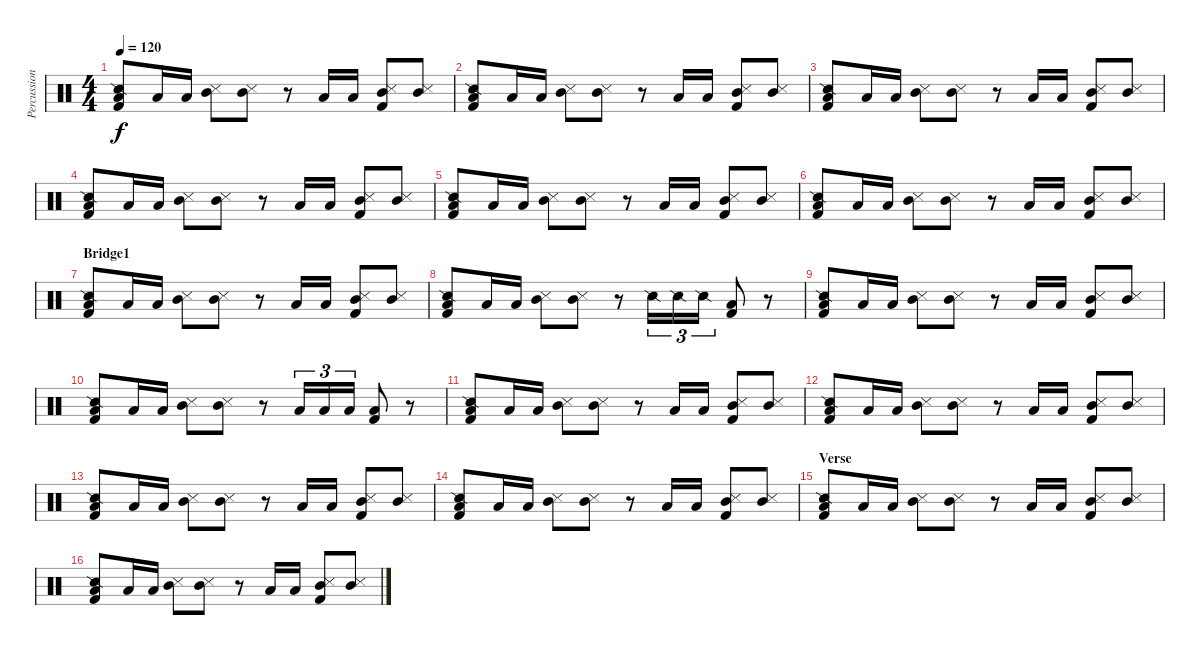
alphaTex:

\track ("Percussion" "Percussion") {instrument percussion}
\staff {score}
\articulation defaults
\ts (4 4)
\tempo 120
\clef neutral
\ks c
("Kick (hit) 2" "Snare (side stick) 2" "Low Floor Tom (hit)").8{dy f} "Low Tom (hit)".16 "Low Tom (hit)".16 ("Snare (side stick) 3" "Mid Tom (hit)").8 ("Snare (side stick) 3" "Mid Tom (hit)").8 r.8 "Low Tom (hit)".16 "Low Tom (hit)".16 ("Kick (hit) 2" "Snare (side stick) 3" "Mid Tom (hit)").8 ("Snare (side stick) 3" "Mid Tom (hit)").8 |
("Kick (hit) 2" "Snare (side stick) 2" "Low Floor Tom (hit)").8 "Low Tom (hit)".16 "Low Tom (hit)".16 ("Snare (side stick) 3" "Mid Tom (hit)").8 ("Snare (side stick) 3" "Mid Tom (hit)").8 r.8 "Low Tom (hit)".16 "Low Tom (hit)".16 ("Kick (hit) 2" "Snare (side stick) 3" "Mid Tom (hit)").8 ("Snare (side stick) 3" "Mid Tom (hit)").8 |
("Kick (hit) 2" "Snare (side stick) 2" "Low Floor Tom (hit)").8 "Low Tom (hit)".16 "Low Tom (hit)".16 ("Snare (side stick) 3" "Mid Tom (hit)").8 ("Snare (side stick) 3" "Mid Tom (hit)").8 r.8 "Low Tom (hit)".16 "Low Tom (hit)".16 ("Kick (hit) 2" "Snare (side stick) 3" "Mid Tom (hit)").8 ("Snare (side stick) 3" "Mid Tom (hit)").8 |
("Kick (hit) 2" "Snare (side stick) 2" "Low Floor Tom (hit)").8 "Low Tom (hit)".16 "Low Tom (hit)".16 ("Snare (side stick) 3" "Mid Tom (hit)").8 ("Snare (side stick) 3" "Mid Tom (hit)").8 r.8 "Low Tom (hit)".16 "Low Tom (hit)".16 ("Kick (hit) 2" "Snare (side stick) 3" "Mid Tom (hit)").8 ("Snare (side stick) 3" "Mid Tom (hit)").8 |
("Kick (hit) 2" "Snare (side stick) 2" "Low Floor Tom (hit)").8 "Low Tom (hit)".16 "Low Tom (hit)".16 ("Snare (side stick) 3" "Mid Tom (hit)").8 ("Snare (side stick) 3" "Mid Tom (hit)").8 r.8 "Low Tom (hit)".16 "Low Tom (hit)".16 ("Kick (hit) 2" "Snare (side stick) 3" "Mid Tom (hit)").8 ("Snare (side stick) 3" "Mid Tom (hit)").8 |
("Kick (hit) 2" "Snare (side stick) 2" "Low Floor Tom (hit)").8 "Low Tom (hit)".16 "Low Tom (hit)".16 ("Snare (side stick) 3" "Mid Tom (hit)").8 ("Snare (side stick) 3" "Mid Tom (hit)").8 r.8 "Low Tom (hit)".16 "Low Tom (hit)".16 ("Kick (hit) 2" "Snare (side stick) 3" "Mid Tom (hit)").8 ("Snare (side stick) 3" "Mid Tom (hit)").8 |
\section ("" "Bridge1")
("Kick (hit) 2" "Snare (side stick) 2" "Low Floor Tom (hit)").8 "Low Tom (hit)".16 "Low Tom (hit)".16 ("Snare (side stick) 3" "Mid Tom (hit)").8 ("Snare (side stick) 3" "Mid Tom (hit)").8 r.8 "Low Tom (hit)".16 "Low Tom (hit)".16 ("Kick (hit) 2" "Snare (side stick) 3" "Mid Tom (hit)").8 ("Snare (side stick) 3" "Mid Tom (hit)").8 |
("Kick (hit) 2" "Snare (side stick) 2" "Low Floor Tom (hit)").8 "Low Tom (hit)".16 "Low Tom (hit)".16 ("Snare (side stick) 3" "Mid Tom (hit)").8 ("Snare (side stick) 3" "Mid Tom (hit)").8 r.8 "Snare (side stick) 2".16{tu (3 2)} "Snare (side stick) 2".16{tu (3 2)} "Snare (side stick) 2".16{tu (3 2)} ("Kick (hit) 2" "Low Floor Tom (hit)").8 r.8 |
("Kick (hit) 2" "Snare (side stick) 2" "Low Floor Tom (hit)").8 "Low Tom (hit)".16 "Low Tom (hit)".16 ("Snare (side stick) 3" "Mid Tom (hit)").8 ("Snare (side stick) 3" "Mid Tom (hit)").8 r.8 "Low Tom (hit)".16 "Low Tom (hit)".16 ("Kick (hit) 2" "Snare (side stick) 3" "Mid Tom (hit)").8 ("Snare (side stick) 3" "Mid Tom (hit)").8 |
("Kick (hit) 2" "Snare (side stick) 2" "Low Floor Tom (hit)").8 "Low Tom (hit)".16 "Low Tom (hit)".16 ("Snare (side stick) 3" "Mid Tom (hit)").8 ("Snare (side stick) 3" "Mid Tom (hit)").8 r.8 "Low Floor Tom (hit)".16{tu (3 2)} "Low Floor Tom (hit)".16{tu (3 2)} "Low Floor Tom (hit)".16{tu (3 2)} ("Kick (hit) 2" "Low Floor Tom (hit)").8 r.8 |
("Kick (hit) 2" "Snare (side stick) 2" "Low Floor Tom (hit)").8 "Low Tom (hit)".16 "Low Tom (hit)".16 ("Snare (side stick) 3" "Mid Tom (hit)").8 ("Snare (side stick) 3" "Mid Tom (hit)").8 r.8 "Low Tom (hit)".16 "Low Tom (hit)".16 ("Kick (hit) 2" "Snare (side stick) 3" "Mid Tom (hit)").8 ("Snare (side stick) 3" "Mid Tom (hit)").8 |
("Kick (hit) 2" "Snare (side stick) 2" "Low Floor Tom (hit)").8 "Low Tom (hit)".16 "Low Tom (hit)".16 ("Snare (side stick) 3" "Mid Tom (hit)").8 ("Snare (side stick) 3" "Mid Tom (hit)").8 r.8 "Low Tom (hit)".16 "Low Tom (hit)".16 ("Kick (hit) 2" "Snare (side stick) 3" "Mid Tom (hit)").8 ("Snare (side stick) 3" "Mid Tom (hit)").8 |
("Kick (hit) 2" "Snare (side stick) 2" "Low Floor Tom (hit)").8 "Low Tom (hit)".16 "Low Tom (hit)".16 ("Snare (side stick) 3" "Mid Tom (hit)").8 ("Snare (side stick) 3" "Mid Tom (hit)").8 r.8 "Low Tom (hit)".16 "Low Tom (hit)".16 ("Kick (hit) 2" "Snare (side stick) 3" "Mid Tom (hit)").8 ("Snare (side stick) 3" "Mid Tom (hit)").8 |
("Kick (hit) 2" "Snare (side stick) 2" "Low Floor Tom (hit)").8 "Low Tom (hit)".16 "Low Tom (hit)".16 ("Snare (side stick) 3" "Mid Tom (hit)").8 ("Snare (side stick) 3" "Mid Tom (hit)").8 r.8 "Low Tom (hit)".16 "Low Tom (hit)".16 ("Kick (hit) 2" "Snare (side stick) 3" "Mid Tom (hit)").8 ("Snare (side stick) 3" "Mid Tom (hit)").8 |
\section ("" "Verse")
("Kick (hit) 2" "Snare (side stick) 2" "Low Floor Tom (hit)").8 "Low Tom (hit)".16 "Low Tom (hit)".16 ("Snare (side stick) 3" "Mid Tom (hit)").8 ("Snare (side stick) 3" "Mid Tom (hit)").8 r.8 "Low Tom (hit)".16 "Low Tom (hit)".16 ("Kick (hit) 2" "Snare (side stick) 3" "Mid Tom (hit)").8 ("Snare (side stick) 3" "Mid Tom (hit)").8 |
("Kick (hit) 2" "Snare (side stick) 2" "Low Floor Tom (hit)").8 "Low Tom (hit)".16 "Low Tom (hit)".16 ("Snare (side stick) 3" "Mid Tom (hit)").8 ("Snare (side stick) 3" "Mid Tom (hit)").8 r.8 "Low Tom (hit)".16 "Low Tom (hit)".16 ("Kick (hit) 2" "Snare (side stick) 3" "Mid Tom (hit)").8 ("Snare (side stick) 3" "Mid Tom (hit)").8
